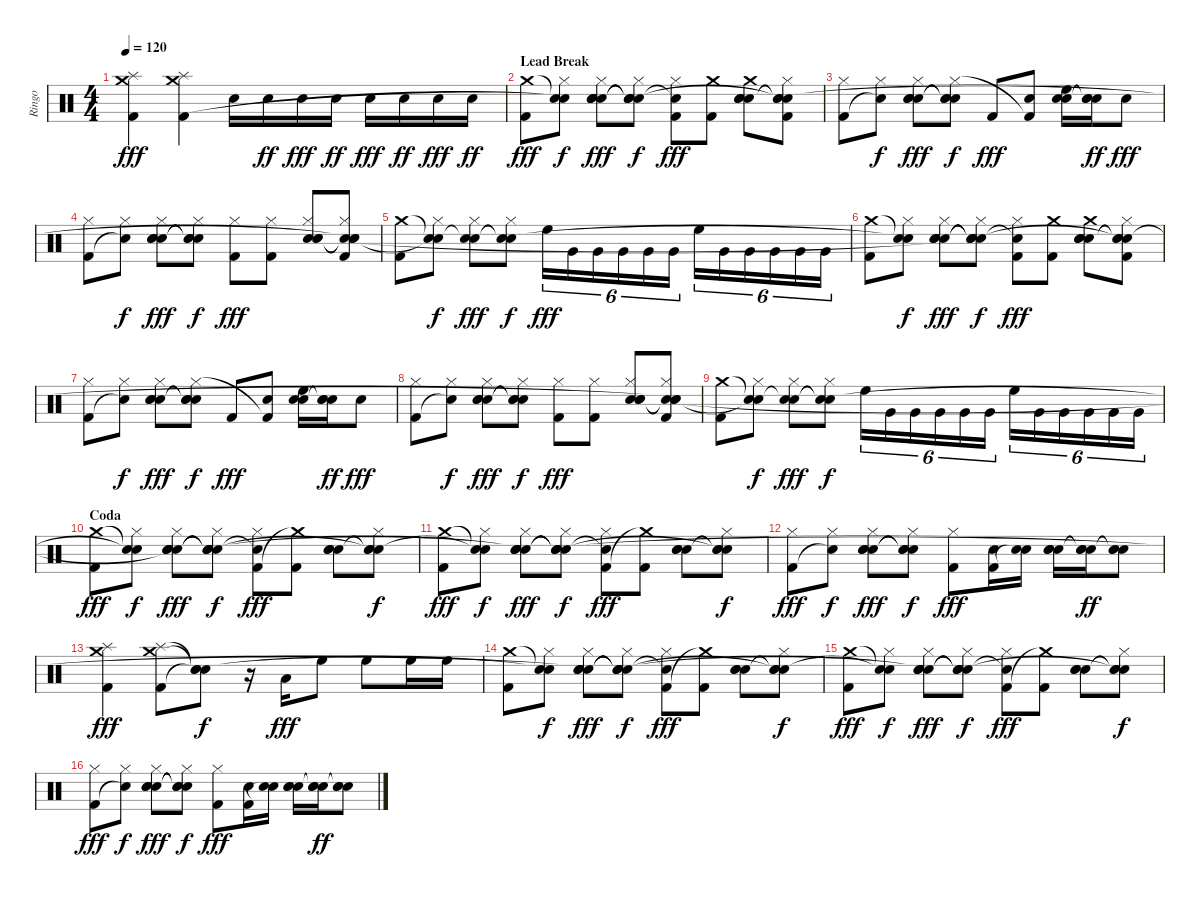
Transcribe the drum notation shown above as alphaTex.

\track ("Ringo" "Ringo") {instrument percussion}
\staff {score}
\articulation defaults
\ts (4 4)
\tempo 120
\clef neutral
\ks c
("Crash medium (hit)" "Splash (hit)" "Kick (hit) 2").4{dy fff} ("Crash medium (hit)" "Splash (hit)" "Kick (hit) 2").4 "Electric Snare (hit)".16 "Electric Snare (hit)".16{dy ff} "Electric Snare (hit)".16{dy fff} "Electric Snare (hit)".16{dy ff} "Electric Snare (hit)".16{dy fff} "Electric Snare (hit)".16{dy ff} "Electric Snare (hit)".16{dy fff} "Electric Snare (hit)".16{dy ff} |
\section ("" "Lead Break")
("Kick (hit) 2" "Crash medium (hit)").8{dy fff} ("Hi-Hat (closed)" "Snare (hit)"{t} "Snare (hit)"{t}).8{dy f} ("Hand Clap (hit)" "Hi-Hat (closed)" "Electric Snare (hit)" "Hand Clap (hit)" "Snare (hit)"{t}).8{dy fff} ("Snare (hit)"{t} "Hi-Hat (closed)" "Snare (hit)"{t} "Snare (hit)"{t} "Snare (hit)"{t}).8{dy f} ("Hi-Hat (closed)" "Kick (hit) 2" "Snare (hit)"{t}).8{dy fff} ("Kick (hit) 2" "Crash medium (hit)").8 ("Hand Clap (hit)" "Electric Snare (hit)" "Hand Clap (hit)" "Crash medium (hit)").8 ("Snare (hit)"{t} "Hi-Hat (closed)" "Snare (hit)"{t} "Kick (hit) 2" "Snare (hit)"{t}).8 |
("Hi-Hat (closed)" "Kick (hit) 2").8 ("Hi-Hat (closed)" "Snare (hit)"{t}).8{dy f} ("Hand Clap (hit)" "Hi-Hat (closed)" "Electric Snare (hit)" "Hand Clap (hit)").8{dy fff} ("Snare (hit)"{t} "Hi-Hat (closed)" "Snare (hit)"{t} "Snare (hit)"{t}).8{dy f} "Kick (hit) 2".8{dy fff} ("Electric Snare (hit)" "Kick (hit) 2"{t}).8 ("Hand Clap (hit)" "High Floor Tom (hit)" "Hand Clap (hit)").16 ("Snare (hit)"{t} "Electric Snare (hit)" "Snare (hit)"{t}).16{dy ff} "Electric Snare (hit)".8{dy fff} |
("Hi-Hat (closed)" "Kick (hit) 2").8 ("Hi-Hat (closed)" "Snare (hit)"{t}).8{dy f} ("Hand Clap (hit)" "Hi-Hat (closed)" "Electric Snare (hit)" "Hand Clap (hit)").8{dy fff} ("Snare (hit)"{t} "Hi-Hat (closed)" "Snare (hit)"{t} "Snare (hit)"{t}).8{dy f} ("Hi-Hat (closed)" "Kick (hit) 2").8{dy fff} ("Hi-Hat (closed)" "Kick (hit) 2").8 ("Hand Clap (hit)" "Hi-Hat (closed)" "Electric Snare (hit)" "Hand Clap (hit)").8 ("Snare (hit)"{t} "Hi-Hat (closed)" "Snare (hit)"{t} "Kick (hit) 2" "Snare (hit)"{t}).8 |
("Crash medium (hit)" "Kick (hit) 2").8 ("Snare (hit)"{t} "Hi-Hat (closed)" "Snare (hit)"{t}).8{dy f} ("Snare (hit)"{t} "Hi-Hat (closed)" "Electric Snare (hit)").8{dy fff} ("Snare (hit)"{t} "Hi-Hat (closed)" "Snare (hit)"{t}).8{dy f} "High Floor Tom (hit)".16{tu (6 4) dy fff} "Very Low Tom (hit)".16{tu (6 4)} "Very Low Tom (hit)".16{tu (6 4)} "Very Low Tom (hit)".16{tu (6 4)} "Very Low Tom (hit)".16{tu (6 4)} "Very Low Tom (hit)".16{tu (6 4)} "High Floor Tom (hit)".16{tu (6 4)} "Very Low Tom (hit)".16{tu (6 4)} "Very Low Tom (hit)".16{tu (6 4)} "Very Low Tom (hit)".16{tu (6 4)} "Very Low Tom (hit)".16{tu (6 4)} "Very Low Tom (hit)".16{tu (6 4)} |
("Kick (hit) 2" "Crash medium (hit)").8 ("Hi-Hat (closed)" "Snare (hit)"{t} "Snare (hit)"{t}).8{dy f} ("Hand Clap (hit)" "Hi-Hat (closed)" "Electric Snare (hit)" "Hand Clap (hit)" "Snare (hit)"{t}).8{dy fff} ("Snare (hit)"{t} "Hi-Hat (closed)" "Snare (hit)"{t} "Snare (hit)"{t} "Snare (hit)"{t}).8{dy f} ("Hi-Hat (closed)" "Kick (hit) 2" "Snare (hit)"{t}).8{dy fff} ("Kick (hit) 2" "Crash medium (hit)").8 ("Hand Clap (hit)" "Electric Snare (hit)" "Hand Clap (hit)" "Crash medium (hit)").8 ("Snare (hit)"{t} "Hi-Hat (closed)" "Snare (hit)"{t} "Kick (hit) 2" "Snare (hit)"{t}).8 |
("Hi-Hat (closed)" "Kick (hit) 2").8 ("Hi-Hat (closed)" "Snare (hit)"{t}).8{dy f} ("Hand Clap (hit)" "Hi-Hat (closed)" "Electric Snare (hit)" "Hand Clap (hit)").8{dy fff} ("Snare (hit)"{t} "Hi-Hat (closed)" "Snare (hit)"{t} "Snare (hit)"{t}).8{dy f} "Kick (hit) 2".8{dy fff} ("Electric Snare (hit)" "Kick (hit) 2"{t}).8 ("Hand Clap (hit)" "High Floor Tom (hit)" "Hand Clap (hit)").16 ("Snare (hit)"{t} "Electric Snare (hit)" "Snare (hit)"{t}).16{dy ff} "Electric Snare (hit)".8{dy fff} |
("Hi-Hat (closed)" "Kick (hit) 2").8 ("Hi-Hat (closed)" "Snare (hit)"{t}).8{dy f} ("Hand Clap (hit)" "Hi-Hat (closed)" "Electric Snare (hit)" "Hand Clap (hit)").8{dy fff} ("Snare (hit)"{t} "Hi-Hat (closed)" "Snare (hit)"{t} "Snare (hit)"{t}).8{dy f} ("Hi-Hat (closed)" "Kick (hit) 2").8{dy fff} ("Hi-Hat (closed)" "Kick (hit) 2").8 ("Hand Clap (hit)" "Hi-Hat (closed)" "Electric Snare (hit)" "Hand Clap (hit)").8 ("Snare (hit)"{t} "Hi-Hat (closed)" "Snare (hit)"{t} "Kick (hit) 2" "Snare (hit)"{t}).8 |
("Crash medium (hit)" "Kick (hit) 2").8 ("Snare (hit)"{t} "Hi-Hat (closed)" "Snare (hit)"{t}).8{dy f} ("Snare (hit)"{t} "Hi-Hat (closed)" "Electric Snare (hit)").8{dy fff} ("Snare (hit)"{t} "Hi-Hat (closed)" "Snare (hit)"{t}).8{dy f} "High Floor Tom (hit)".16{tu (6 4)} "Very Low Tom (hit)".16{tu (6 4)} "Very Low Tom (hit)".16{tu (6 4)} "Very Low Tom (hit)".16{tu (6 4)} "Very Low Tom (hit)".16{tu (6 4)} "Very Low Tom (hit)".16{tu (6 4)} "High Floor Tom (hit)".16{tu (6 4)} "Very Low Tom (hit)".16{tu (6 4)} "Very Low Tom (hit)".16{tu (6 4)} "Very Low Tom (hit)".16{tu (6 4)} "Very Low Tom (hit)".16{tu (6 4)} "Very Low Tom (hit)".16{tu (6 4)} |
\section ("" "Coda")
("Kick (hit) 2" "Crash medium (hit)").8{dy fff} ("Hi-Hat (closed)" "Snare (hit)"{t} "Snare (hit)"{t}).8{dy f} ("Hand Clap (hit)" "Hi-Hat (closed)" "Electric Snare (hit)" "Hand Clap (hit)" "Snare (hit)"{t}).8{dy fff} ("Snare (hit)"{t} "Hi-Hat (closed)" "Snare (hit)"{t} "Snare (hit)"{t} "Snare (hit)"{t}).8{dy f} ("Hi-Hat (closed)" "Kick (hit) 2" "Snare (hit)"{t}).8{dy fff} ("Kick (hit) 2" "Crash medium (hit)"{t}).8 ("Hand Clap (hit)" "Electric Snare (hit)" "Hand Clap (hit)").8 ("Snare (hit)"{t} "Hi-Hat (closed)" "Snare (hit)"{t} "Snare (hit)"{t}).8{dy f} |
("Kick (hit) 2" "Crash medium (hit)").8{dy fff} ("Hi-Hat (closed)" "Snare (hit)"{t} "Snare (hit)"{t}).8{dy f} ("Hand Clap (hit)" "Hi-Hat (closed)" "Electric Snare (hit)" "Hand Clap (hit)" "Snare (hit)"{t}).8{dy fff} ("Snare (hit)"{t} "Hi-Hat (closed)" "Snare (hit)"{t} "Snare (hit)"{t} "Snare (hit)"{t}).8{dy f} ("Hi-Hat (closed)" "Kick (hit) 2" "Snare (hit)"{t}).8{dy fff} ("Kick (hit) 2" "Crash medium (hit)"{t}).8 ("Hand Clap (hit)" "Electric Snare (hit)" "Hand Clap (hit)").8 ("Snare (hit)"{t} "Hi-Hat (closed)" "Snare (hit)"{t} "Snare (hit)"{t}).8{dy f} |
("Hi-Hat (closed)" "Kick (hit) 2").8{dy fff} ("Hi-Hat (closed)" "Snare (hit)"{t}).8{dy f} ("Hand Clap (hit)" "Hi-Hat (closed)" "Electric Snare (hit)" "Hand Clap (hit)").8{dy fff} ("Snare (hit)"{t} "Hi-Hat (closed)" "Snare (hit)"{t} "Snare (hit)"{t}).8{dy f} ("Hi-Hat (closed)" "Kick (hit) 2").8{dy fff} ("Electric Snare (hit)" "Kick (hit) 2").16 ("Electric Snare (hit)" "Snare (hit)"{t}).16 ("Hand Clap (hit)" "Electric Snare (hit)" "Hand Clap (hit)").16 ("Snare (hit)"{t} "Electric Snare (hit)" "Snare (hit)"{t}).16{dy ff} ("Snare (hit)"{t} "Electric Snare (hit)" "Snare (hit)"{t}).8 |
("Crash medium (hit)" "Splash (hit)" "Kick (hit) 2").4{dy fff} ("Crash medium (hit)" "Splash (hit)" "Kick (hit) 2").8 ("Snare (hit)"{t} "Snare (hit)"{t} "Snare (hit)"{t}).8{dy f} r.16 "Low Floor Tom (hit)".16{dy fff} "High Floor Tom (hit)".8 "High Floor Tom (hit)".8 "High Floor Tom (hit)".16 "High Floor Tom (hit)".16 |
("Kick (hit) 2" "Crash medium (hit)").8 ("Hi-Hat (closed)" "Snare (hit)"{t} "Snare (hit)"{t}).8{dy f} ("Hand Clap (hit)" "Hi-Hat (closed)" "Electric Snare (hit)" "Hand Clap (hit)" "Snare (hit)"{t}).8{dy fff} ("Snare (hit)"{t} "Hi-Hat (closed)" "Snare (hit)"{t} "Snare (hit)"{t} "Snare (hit)"{t}).8{dy f} ("Hi-Hat (closed)" "Kick (hit) 2" "Snare (hit)"{t}).8{dy fff} ("Kick (hit) 2" "Crash medium (hit)"{t}).8 ("Hand Clap (hit)" "Electric Snare (hit)" "Hand Clap (hit)").8 ("Snare (hit)"{t} "Hi-Hat (closed)" "Snare (hit)"{t} "Snare (hit)"{t}).8{dy f} |
("Kick (hit) 2" "Crash medium (hit)").8{dy fff} ("Hi-Hat (closed)" "Snare (hit)"{t} "Snare (hit)"{t}).8{dy f} ("Hand Clap (hit)" "Hi-Hat (closed)" "Electric Snare (hit)" "Hand Clap (hit)" "Snare (hit)"{t}).8{dy fff} ("Snare (hit)"{t} "Hi-Hat (closed)" "Snare (hit)"{t} "Snare (hit)"{t} "Snare (hit)"{t}).8{dy f} ("Hi-Hat (closed)" "Kick (hit) 2" "Snare (hit)"{t}).8{dy fff} ("Kick (hit) 2" "Crash medium (hit)"{t}).8 ("Hand Clap (hit)" "Electric Snare (hit)" "Hand Clap (hit)").8 ("Snare (hit)"{t} "Hi-Hat (closed)" "Snare (hit)"{t} "Snare (hit)"{t}).8{dy f} |
("Hi-Hat (closed)" "Kick (hit) 2").8{dy fff} ("Hi-Hat (closed)" "Snare (hit)"{t}).8{dy f} ("Hand Clap (hit)" "Hi-Hat (closed)" "Electric Snare (hit)" "Hand Clap (hit)").8{dy fff} ("Snare (hit)"{t} "Hi-Hat (closed)" "Snare (hit)"{t} "Snare (hit)"{t}).8{dy f} ("Hi-Hat (closed)" "Kick (hit) 2").8{dy fff} ("Electric Snare (hit)" "Kick (hit) 2").16 ("Electric Snare (hit)" "Snare (hit)"{t}).16 ("Hand Clap (hit)" "Electric Snare (hit)" "Hand Clap (hit)").16 ("Snare (hit)"{t} "Electric Snare (hit)" "Snare (hit)"{t}).16{dy ff} ("Snare (hit)"{t} "Electric Snare (hit)" "Snare (hit)"{t}).8
